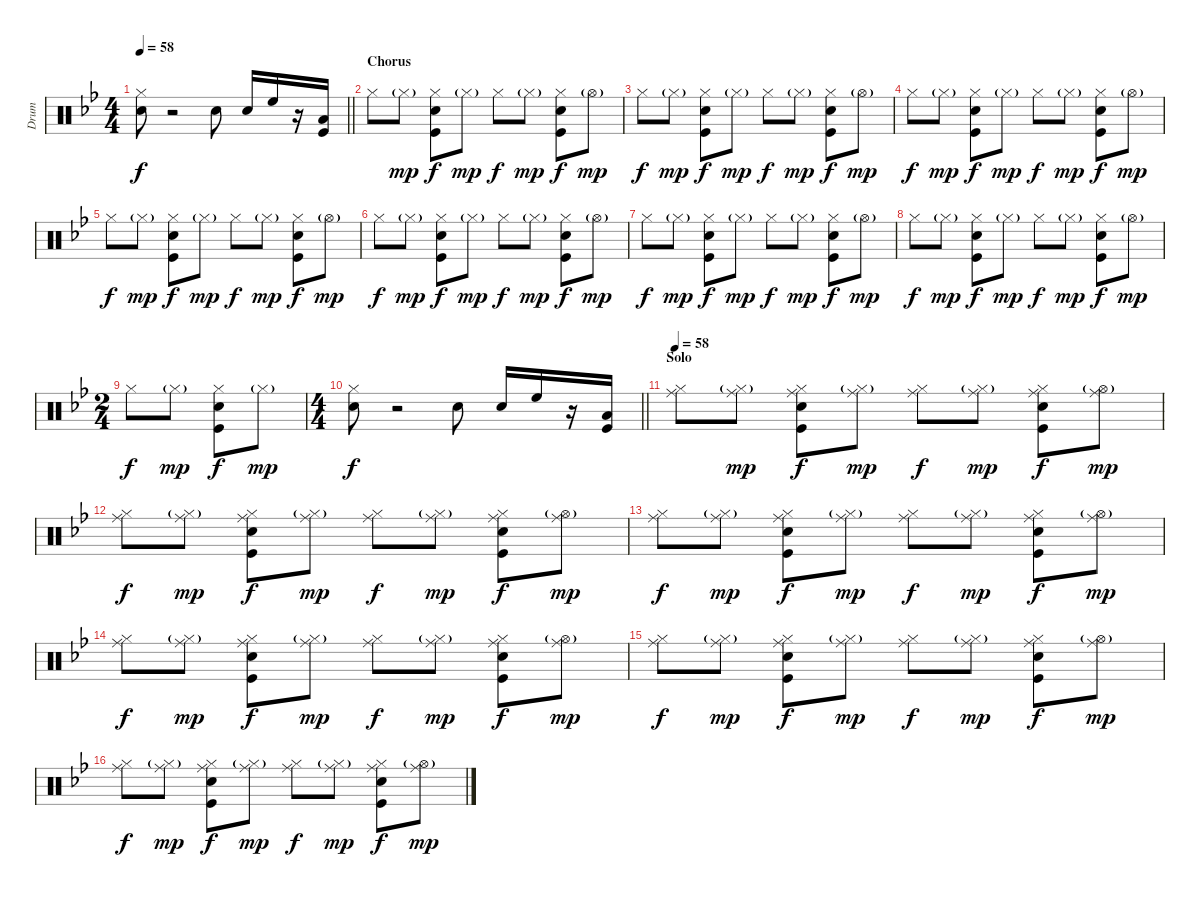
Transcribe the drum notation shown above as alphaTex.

\track ("Drum" "Drum") {instrument percussion}
\staff {score}
\articulation defaults
\ts (4 4)
\tempo 58
\clef neutral
\barLineRight lightlight
\ks bb
("Hi-Hat (closed)" "Snare (hit) 2").8{dy f} r.2 "Snare (hit) 2".8 "Snare (hit) 2".16 "High Floor Tom (hit)".16 r.16 ("Kick (hit)" "Low Tom (hit)").16 |
\section ("" "Chorus")
"Hi-Hat (closed)".8 "Hi-Hat (closed)"{g}.8{dy mp} ("Hi-Hat (closed)" "Kick (hit)" "Snare (hit) 2").8{dy f} "Hi-Hat (closed)"{g}.8{dy mp} "Hi-Hat (closed)".8{dy f} "Hi-Hat (closed)"{g}.8{dy mp} ("Hi-Hat (closed)" "Kick (hit)" "Snare (hit) 2").8{dy f} "Hi-Hat (open)"{g}.8{dy mp} |
"Hi-Hat (closed)".8{dy f} "Hi-Hat (closed)"{g}.8{dy mp} ("Hi-Hat (closed)" "Kick (hit)" "Snare (hit) 2").8{dy f} "Hi-Hat (closed)"{g}.8{dy mp} "Hi-Hat (closed)".8{dy f} "Hi-Hat (closed)"{g}.8{dy mp} ("Hi-Hat (closed)" "Kick (hit)" "Snare (hit) 2").8{dy f} "Hi-Hat (open)"{g}.8{dy mp} |
"Hi-Hat (closed)".8{dy f} "Hi-Hat (closed)"{g}.8{dy mp} ("Hi-Hat (closed)" "Kick (hit)" "Snare (hit) 2").8{dy f} "Hi-Hat (closed)"{g}.8{dy mp} "Hi-Hat (closed)".8{dy f} "Hi-Hat (closed)"{g}.8{dy mp} ("Hi-Hat (closed)" "Kick (hit)" "Snare (hit) 2").8{dy f} "Hi-Hat (open)"{g}.8{dy mp} |
"Hi-Hat (closed)".8{dy f} "Hi-Hat (closed)"{g}.8{dy mp} ("Hi-Hat (closed)" "Kick (hit)" "Snare (hit) 2").8{dy f} "Hi-Hat (closed)"{g}.8{dy mp} "Hi-Hat (closed)".8{dy f} "Hi-Hat (closed)"{g}.8{dy mp} ("Hi-Hat (closed)" "Kick (hit)" "Snare (hit) 2").8{dy f} "Hi-Hat (open)"{g}.8{dy mp} |
"Hi-Hat (closed)".8{dy f} "Hi-Hat (closed)"{g}.8{dy mp} ("Hi-Hat (closed)" "Kick (hit)" "Snare (hit) 2").8{dy f} "Hi-Hat (closed)"{g}.8{dy mp} "Hi-Hat (closed)".8{dy f} "Hi-Hat (closed)"{g}.8{dy mp} ("Hi-Hat (closed)" "Kick (hit)" "Snare (hit) 2").8{dy f} "Hi-Hat (open)"{g}.8{dy mp} |
"Hi-Hat (closed)".8{dy f} "Hi-Hat (closed)"{g}.8{dy mp} ("Hi-Hat (closed)" "Kick (hit)" "Snare (hit) 2").8{dy f} "Hi-Hat (closed)"{g}.8{dy mp} "Hi-Hat (closed)".8{dy f} "Hi-Hat (closed)"{g}.8{dy mp} ("Hi-Hat (closed)" "Kick (hit)" "Snare (hit) 2").8{dy f} "Hi-Hat (open)"{g}.8{dy mp} |
"Hi-Hat (closed)".8{dy f} "Hi-Hat (closed)"{g}.8{dy mp} ("Hi-Hat (closed)" "Kick (hit)" "Snare (hit) 2").8{dy f} "Hi-Hat (closed)"{g}.8{dy mp} "Hi-Hat (closed)".8{dy f} "Hi-Hat (closed)"{g}.8{dy mp} ("Hi-Hat (closed)" "Kick (hit)" "Snare (hit) 2").8{dy f} "Hi-Hat (open)"{g}.8{dy mp} |
\ts (2 4)
"Hi-Hat (closed)".8{dy f} "Hi-Hat (closed)"{g}.8{dy mp} ("Hi-Hat (closed)" "Kick (hit)" "Snare (hit) 2").8{dy f} "Hi-Hat (closed)"{g}.8{dy mp} |
\ts (4 4)
\barLineRight lightlight
("Hi-Hat (closed)" "Snare (hit) 2").8{dy f} r.2 "Snare (hit) 2".8 "Snare (hit) 2".16 "High Floor Tom (hit)".16 r.16 ("Kick (hit)" "Low Tom (hit)").16 |
\section ("" "Solo")
\tempo 58
("Ride (middle)" "Hi-Hat (closed)").8 ("Ride (middle)" "Hi-Hat (closed)"{g}).8{dy mp} ("Ride (middle)" "Hi-Hat (closed)" "Kick (hit)" "Snare (hit) 2").8{dy f} ("Ride (middle)" "Hi-Hat (closed)"{g}).8{dy mp} ("Ride (middle)" "Hi-Hat (closed)").8{dy f} ("Ride (middle)" "Hi-Hat (closed)"{g}).8{dy mp} ("Ride (middle)" "Hi-Hat (closed)" "Kick (hit)" "Snare (hit) 2").8{dy f} ("Ride (middle)" "Hi-Hat (open)"{g}).8{dy mp} |
("Ride (middle)" "Hi-Hat (closed)").8{dy f} ("Ride (middle)" "Hi-Hat (closed)"{g}).8{dy mp} ("Ride (middle)" "Hi-Hat (closed)" "Kick (hit)" "Snare (hit) 2").8{dy f} ("Ride (middle)" "Hi-Hat (closed)"{g}).8{dy mp} ("Ride (middle)" "Hi-Hat (closed)").8{dy f} ("Ride (middle)" "Hi-Hat (closed)"{g}).8{dy mp} ("Ride (middle)" "Hi-Hat (closed)" "Kick (hit)" "Snare (hit) 2").8{dy f} ("Ride (middle)" "Hi-Hat (open)"{g}).8{dy mp} |
("Ride (middle)" "Hi-Hat (closed)").8{dy f} ("Ride (middle)" "Hi-Hat (closed)"{g}).8{dy mp} ("Ride (middle)" "Hi-Hat (closed)" "Kick (hit)" "Snare (hit) 2").8{dy f} ("Ride (middle)" "Hi-Hat (closed)"{g}).8{dy mp} ("Ride (middle)" "Hi-Hat (closed)").8{dy f} ("Ride (middle)" "Hi-Hat (closed)"{g}).8{dy mp} ("Ride (middle)" "Hi-Hat (closed)" "Kick (hit)" "Snare (hit) 2").8{dy f} ("Ride (middle)" "Hi-Hat (open)"{g}).8{dy mp} |
("Ride (middle)" "Hi-Hat (closed)").8{dy f} ("Ride (middle)" "Hi-Hat (closed)"{g}).8{dy mp} ("Ride (middle)" "Hi-Hat (closed)" "Kick (hit)" "Snare (hit) 2").8{dy f} ("Ride (middle)" "Hi-Hat (closed)"{g}).8{dy mp} ("Ride (middle)" "Hi-Hat (closed)").8{dy f} ("Ride (middle)" "Hi-Hat (closed)"{g}).8{dy mp} ("Ride (middle)" "Hi-Hat (closed)" "Kick (hit)" "Snare (hit) 2").8{dy f} ("Ride (middle)" "Hi-Hat (open)"{g}).8{dy mp} |
("Ride (middle)" "Hi-Hat (closed)").8{dy f} ("Ride (middle)" "Hi-Hat (closed)"{g}).8{dy mp} ("Ride (middle)" "Hi-Hat (closed)" "Kick (hit)" "Snare (hit) 2").8{dy f} ("Ride (middle)" "Hi-Hat (closed)"{g}).8{dy mp} ("Ride (middle)" "Hi-Hat (closed)").8{dy f} ("Ride (middle)" "Hi-Hat (closed)"{g}).8{dy mp} ("Ride (middle)" "Hi-Hat (closed)" "Kick (hit)" "Snare (hit) 2").8{dy f} ("Ride (middle)" "Hi-Hat (open)"{g}).8{dy mp} |
("Ride (middle)" "Hi-Hat (closed)").8{dy f} ("Ride (middle)" "Hi-Hat (closed)"{g}).8{dy mp} ("Ride (middle)" "Hi-Hat (closed)" "Kick (hit)" "Snare (hit) 2").8{dy f} ("Ride (middle)" "Hi-Hat (closed)"{g}).8{dy mp} ("Ride (middle)" "Hi-Hat (closed)").8{dy f} ("Ride (middle)" "Hi-Hat (closed)"{g}).8{dy mp} ("Ride (middle)" "Hi-Hat (closed)" "Kick (hit)" "Snare (hit) 2").8{dy f} ("Ride (middle)" "Hi-Hat (open)"{g}).8{dy mp}
